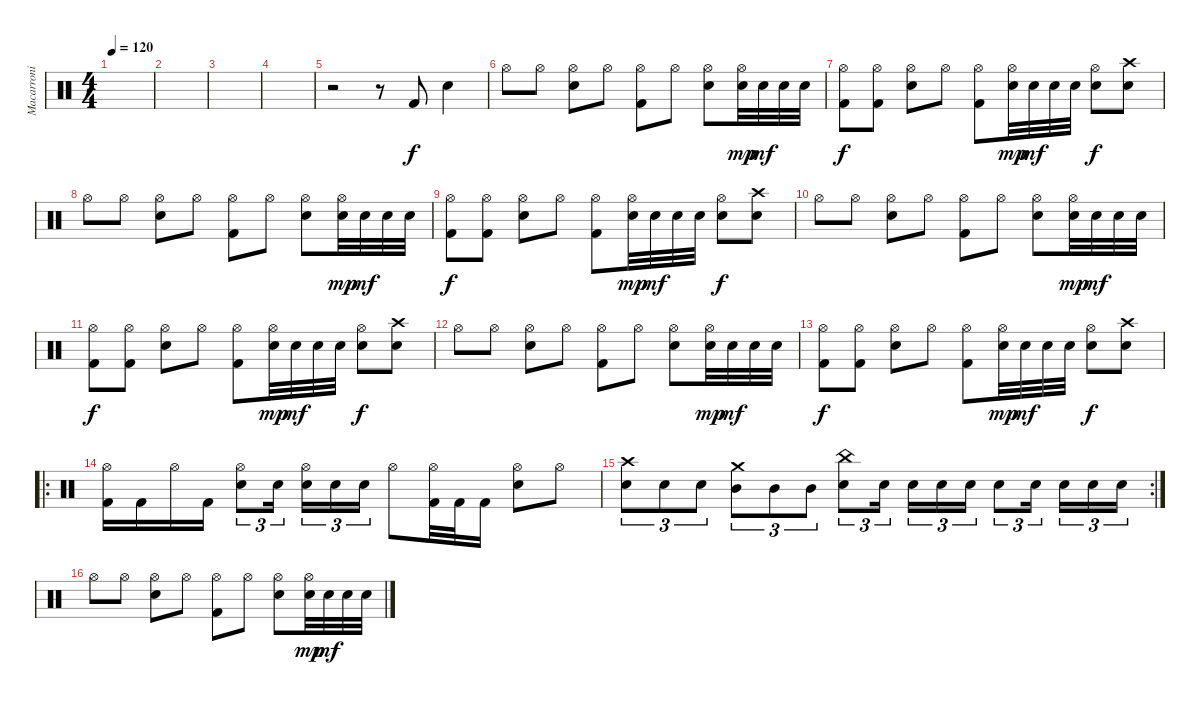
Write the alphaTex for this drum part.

\track ("Macarroni" "Macarroni") {instrument percussion}
\staff {score}
\articulation defaults
\ts (4 4)
\tempo 120
\clef neutral
\ks c
|
|
|
|
r.2 r.8 "Kick (hit) 2".8 "Electric Snare (hit)".4 |
"Hi-Hat (open)".8 "Hi-Hat (open)".8 ("Hi-Hat (open)" "Electric Snare (hit)").8 "Hi-Hat (open)".8 ("Hi-Hat (open)" "Kick (hit) 2").8 "Hi-Hat (open)".8 ("Hi-Hat (open)" "Electric Snare (hit)").8 ("Hi-Hat (open)" "Electric Snare (hit)").32{dy mp} "Electric Snare (hit)".32{dy mf} "Electric Snare (hit)".32 "Electric Snare (hit)".32 |
("Hi-Hat (open)" "Kick (hit) 2").8{dy f} ("Hi-Hat (open)" "Kick (hit) 2").8 ("Hi-Hat (open)" "Electric Snare (hit)").8 "Hi-Hat (open)".8 ("Hi-Hat (open)" "Kick (hit) 2").8 ("Hi-Hat (open)" "Electric Snare (hit)").32{dy mp} "Electric Snare (hit)".32{dy mf} "Electric Snare (hit)".32 "Electric Snare (hit)".32 ("Hi-Hat (open)" "Electric Snare (hit)").8{dy f} ("Crash high (hit)" "Electric Snare (hit)").8 |
"Hi-Hat (open)".8 "Hi-Hat (open)".8 ("Hi-Hat (open)" "Electric Snare (hit)").8 "Hi-Hat (open)".8 ("Hi-Hat (open)" "Kick (hit) 2").8 "Hi-Hat (open)".8 ("Hi-Hat (open)" "Electric Snare (hit)").8 ("Hi-Hat (open)" "Electric Snare (hit)").32{dy mp} "Electric Snare (hit)".32{dy mf} "Electric Snare (hit)".32 "Electric Snare (hit)".32 |
("Hi-Hat (open)" "Kick (hit) 2").8{dy f} ("Hi-Hat (open)" "Kick (hit) 2").8 ("Hi-Hat (open)" "Electric Snare (hit)").8 "Hi-Hat (open)".8 ("Hi-Hat (open)" "Kick (hit) 2").8 ("Hi-Hat (open)" "Electric Snare (hit)").32{dy mp} "Electric Snare (hit)".32{dy mf} "Electric Snare (hit)".32 "Electric Snare (hit)".32 ("Hi-Hat (open)" "Electric Snare (hit)").8{dy f} ("Crash high (hit)" "Electric Snare (hit)").8 |
"Hi-Hat (open)".8 "Hi-Hat (open)".8 ("Hi-Hat (open)" "Electric Snare (hit)").8 "Hi-Hat (open)".8 ("Hi-Hat (open)" "Kick (hit) 2").8 "Hi-Hat (open)".8 ("Hi-Hat (open)" "Electric Snare (hit)").8 ("Hi-Hat (open)" "Electric Snare (hit)").32{dy mp} "Electric Snare (hit)".32{dy mf} "Electric Snare (hit)".32 "Electric Snare (hit)".32 |
("Hi-Hat (open)" "Kick (hit) 2").8{dy f} ("Hi-Hat (open)" "Kick (hit) 2").8 ("Hi-Hat (open)" "Electric Snare (hit)").8 "Hi-Hat (open)".8 ("Hi-Hat (open)" "Kick (hit) 2").8 ("Hi-Hat (open)" "Electric Snare (hit)").32{dy mp} "Electric Snare (hit)".32{dy mf} "Electric Snare (hit)".32 "Electric Snare (hit)".32 ("Hi-Hat (open)" "Electric Snare (hit)").8{dy f} ("Crash high (hit)" "Electric Snare (hit)").8 |
"Hi-Hat (open)".8 "Hi-Hat (open)".8 ("Hi-Hat (open)" "Electric Snare (hit)").8 "Hi-Hat (open)".8 ("Hi-Hat (open)" "Kick (hit) 2").8 "Hi-Hat (open)".8 ("Hi-Hat (open)" "Electric Snare (hit)").8 ("Hi-Hat (open)" "Electric Snare (hit)").32{dy mp} "Electric Snare (hit)".32{dy mf} "Electric Snare (hit)".32 "Electric Snare (hit)".32 |
("Hi-Hat (open)" "Kick (hit) 2").8{dy f} ("Hi-Hat (open)" "Kick (hit) 2").8 ("Hi-Hat (open)" "Electric Snare (hit)").8 "Hi-Hat (open)".8 ("Hi-Hat (open)" "Kick (hit) 2").8 ("Hi-Hat (open)" "Electric Snare (hit)").32{dy mp} "Electric Snare (hit)".32{dy mf} "Electric Snare (hit)".32 "Electric Snare (hit)".32 ("Hi-Hat (open)" "Electric Snare (hit)").8{dy f} ("Crash high (hit)" "Electric Snare (hit)").8 |
\ro
("Hi-Hat (open)" "Kick (hit) 2").16 "Kick (hit) 2".16 "Hi-Hat (open)".16 "Kick (hit) 2".16 ("Hi-Hat (open)" "Electric Snare (hit)").8{tu (3 2)} "Electric Snare (hit)".16{tu (3 2)} ("Hi-Hat (open)" "Electric Snare (hit)").16{tu (3 2)} "Electric Snare (hit)".16{tu (3 2)} "Electric Snare (hit)".16{tu (3 2)} "Hi-Hat (open)".8 ("Hi-Hat (open)" "Kick (hit) 2").32 "Kick (hit) 2".32 "Kick (hit) 2".16 ("Hi-Hat (open)" "Electric Snare (hit)").8 "Hi-Hat (open)".8 |
\rc 2
("Crash high (hit)" "Electric Snare (hit)").8{tu (3 2)} "Electric Snare (hit)".8{tu (3 2)} "Electric Snare (hit)".8{tu (3 2)} ("Crash medium (hit)" "Mid Tom (hit)").8{tu (3 2)} "Mid Tom (hit)".8{tu (3 2)} "Mid Tom (hit)".8{tu (3 2)} ("China (hit)" "Electric Snare (hit)").8{tu (3 2)} "Electric Snare (hit)".16{tu (3 2)} "Electric Snare (hit)".16{tu (3 2)} "Electric Snare (hit)".16{tu (3 2)} "Electric Snare (hit)".16{tu (3 2)} "Electric Snare (hit)".8{tu (3 2)} "Electric Snare (hit)".16{tu (3 2)} "Electric Snare (hit)".16{tu (3 2)} "Electric Snare (hit)".16{tu (3 2)} "Electric Snare (hit)".16{tu (3 2)} |
"Hi-Hat (open)".8 "Hi-Hat (open)".8 ("Hi-Hat (open)" "Electric Snare (hit)").8 "Hi-Hat (open)".8 ("Hi-Hat (open)" "Kick (hit) 2").8 "Hi-Hat (open)".8 ("Hi-Hat (open)" "Electric Snare (hit)").8 ("Hi-Hat (open)" "Electric Snare (hit)").32{dy mp} "Electric Snare (hit)".32{dy mf} "Electric Snare (hit)".32 "Electric Snare (hit)".32
